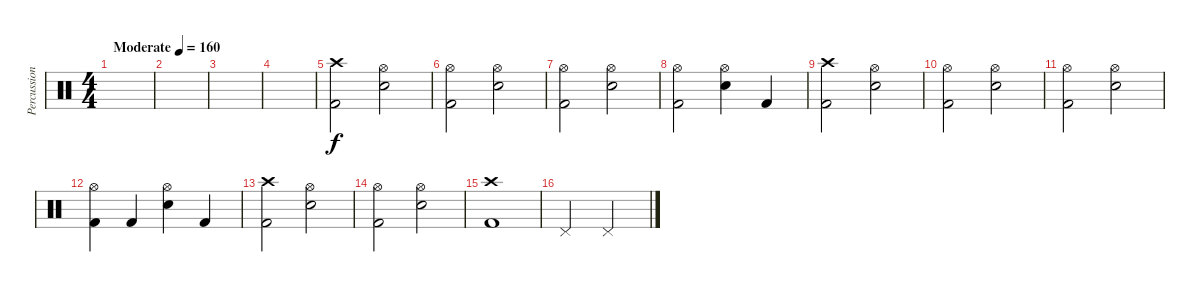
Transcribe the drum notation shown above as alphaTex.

\track ("Percussion" "Percussion") {instrument percussion}
\staff {score}
\articulation defaults
\ts (4 4)
\tempo (160 "Moderate")
\clef neutral
\ks c
|
|
|
|
("Crash high (hit)" "Kick (hit) 2").2 ("Hi-Hat (open)" "Electric Snare (hit)").2 |
("Hi-Hat (open)" "Kick (hit) 2").2 ("Hi-Hat (open)" "Electric Snare (hit)").2 |
("Hi-Hat (open)" "Kick (hit) 2").2 ("Hi-Hat (open)" "Electric Snare (hit)").2 |
("Hi-Hat (open)" "Kick (hit) 2").2 ("Hi-Hat (open)" "Electric Snare (hit)").4 "Kick (hit) 2".4 |
("Crash high (hit)" "Kick (hit) 2").2 ("Hi-Hat (open)" "Electric Snare (hit)").2 |
("Hi-Hat (open)" "Kick (hit) 2").2 ("Hi-Hat (open)" "Electric Snare (hit)").2 |
("Hi-Hat (open)" "Kick (hit) 2").2 ("Hi-Hat (open)" "Electric Snare (hit)").2 |
("Hi-Hat (open)" "Kick (hit) 2").4 "Kick (hit) 2".4 ("Hi-Hat (open)" "Electric Snare (hit)").4 "Kick (hit) 2".4 |
("Crash high (hit)" "Kick (hit) 2").2 ("Hi-Hat (open)" "Electric Snare (hit)").2 |
("Hi-Hat (open)" "Kick (hit) 2").2 ("Hi-Hat (open)" "Electric Snare (hit)").2 |
("Crash high (hit)" "Kick (hit) 2").1 |
"Pedal Hi-Hat (hit)".2 "Pedal Hi-Hat (hit)".2
